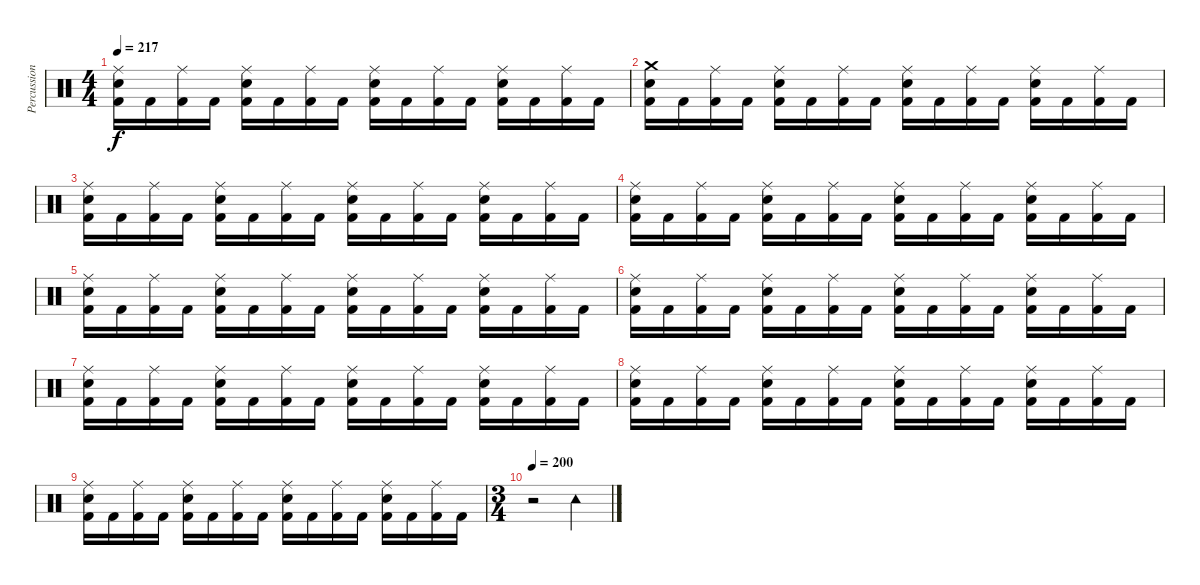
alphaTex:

\track ("Percussions" "Percussion") {instrument percussion}
\staff {score}
\articulation defaults
\ts (4 4)
\tempo 217
\clef neutral
\ks c
("Ride (middle)" "Electric Snare (hit)" "Kick (hit) 2").16{dy f} "Kick (hit) 2".16 ("Ride (middle)" "Kick (hit) 2").16 "Kick (hit) 2".16 ("Ride (middle)" "Electric Snare (hit)" "Kick (hit) 2").16 "Kick (hit) 2".16 ("Ride (middle)" "Kick (hit) 2").16 "Kick (hit) 2".16 ("Ride (middle)" "Electric Snare (hit)" "Kick (hit) 2").16 "Kick (hit) 2".16 ("Ride (middle)" "Kick (hit) 2").16 "Kick (hit) 2".16 ("Ride (middle)" "Electric Snare (hit)" "Kick (hit) 2").16 "Kick (hit) 2".16 ("Ride (middle)" "Kick (hit) 2").16 "Kick (hit) 2".16 |
("Crash medium (hit)" "Electric Snare (hit)" "Kick (hit) 2").16 "Kick (hit) 2".16 ("Ride (middle)" "Kick (hit) 2").16 "Kick (hit) 2".16 ("Ride (middle)" "Electric Snare (hit)" "Kick (hit) 2").16 "Kick (hit) 2".16 ("Ride (middle)" "Kick (hit) 2").16 "Kick (hit) 2".16 ("Ride (middle)" "Electric Snare (hit)" "Kick (hit) 2").16 "Kick (hit) 2".16 ("Ride (middle)" "Kick (hit) 2").16 "Kick (hit) 2".16 ("Ride (middle)" "Electric Snare (hit)" "Kick (hit) 2").16 "Kick (hit) 2".16 ("Ride (middle)" "Kick (hit) 2").16 "Kick (hit) 2".16 |
("Ride (middle)" "Electric Snare (hit)" "Kick (hit) 2").16 "Kick (hit) 2".16 ("Ride (middle)" "Kick (hit) 2").16 "Kick (hit) 2".16 ("Ride (middle)" "Electric Snare (hit)" "Kick (hit) 2").16 "Kick (hit) 2".16 ("Ride (middle)" "Kick (hit) 2").16 "Kick (hit) 2".16 ("Ride (middle)" "Electric Snare (hit)" "Kick (hit) 2").16 "Kick (hit) 2".16 ("Ride (middle)" "Kick (hit) 2").16 "Kick (hit) 2".16 ("Ride (middle)" "Electric Snare (hit)" "Kick (hit) 2").16 "Kick (hit) 2".16 ("Ride (middle)" "Kick (hit) 2").16 "Kick (hit) 2".16 |
("Ride (middle)" "Electric Snare (hit)" "Kick (hit) 2").16 "Kick (hit) 2".16 ("Ride (middle)" "Kick (hit) 2").16 "Kick (hit) 2".16 ("Ride (middle)" "Electric Snare (hit)" "Kick (hit) 2").16 "Kick (hit) 2".16 ("Ride (middle)" "Kick (hit) 2").16 "Kick (hit) 2".16 ("Ride (middle)" "Electric Snare (hit)" "Kick (hit) 2").16 "Kick (hit) 2".16 ("Ride (middle)" "Kick (hit) 2").16 "Kick (hit) 2".16 ("Ride (middle)" "Electric Snare (hit)" "Kick (hit) 2").16 "Kick (hit) 2".16 ("Ride (middle)" "Kick (hit) 2").16 "Kick (hit) 2".16 |
("Ride (middle)" "Electric Snare (hit)" "Kick (hit) 2").16 "Kick (hit) 2".16 ("Ride (middle)" "Kick (hit) 2").16 "Kick (hit) 2".16 ("Ride (middle)" "Electric Snare (hit)" "Kick (hit) 2").16 "Kick (hit) 2".16 ("Ride (middle)" "Kick (hit) 2").16 "Kick (hit) 2".16 ("Ride (middle)" "Electric Snare (hit)" "Kick (hit) 2").16 "Kick (hit) 2".16 ("Ride (middle)" "Kick (hit) 2").16 "Kick (hit) 2".16 ("Ride (middle)" "Electric Snare (hit)" "Kick (hit) 2").16 "Kick (hit) 2".16 ("Ride (middle)" "Kick (hit) 2").16 "Kick (hit) 2".16 |
("Ride (middle)" "Electric Snare (hit)" "Kick (hit) 2").16 "Kick (hit) 2".16 ("Ride (middle)" "Kick (hit) 2").16 "Kick (hit) 2".16 ("Ride (middle)" "Electric Snare (hit)" "Kick (hit) 2").16 "Kick (hit) 2".16 ("Ride (middle)" "Kick (hit) 2").16 "Kick (hit) 2".16 ("Ride (middle)" "Electric Snare (hit)" "Kick (hit) 2").16 "Kick (hit) 2".16 ("Ride (middle)" "Kick (hit) 2").16 "Kick (hit) 2".16 ("Ride (middle)" "Electric Snare (hit)" "Kick (hit) 2").16 "Kick (hit) 2".16 ("Ride (middle)" "Kick (hit) 2").16 "Kick (hit) 2".16 |
("Ride (middle)" "Electric Snare (hit)" "Kick (hit) 2").16 "Kick (hit) 2".16 ("Ride (middle)" "Kick (hit) 2").16 "Kick (hit) 2".16 ("Ride (middle)" "Electric Snare (hit)" "Kick (hit) 2").16 "Kick (hit) 2".16 ("Ride (middle)" "Kick (hit) 2").16 "Kick (hit) 2".16 ("Ride (middle)" "Electric Snare (hit)" "Kick (hit) 2").16 "Kick (hit) 2".16 ("Ride (middle)" "Kick (hit) 2").16 "Kick (hit) 2".16 ("Ride (middle)" "Electric Snare (hit)" "Kick (hit) 2").16 "Kick (hit) 2".16 ("Ride (middle)" "Kick (hit) 2").16 "Kick (hit) 2".16 |
("Ride (middle)" "Electric Snare (hit)" "Kick (hit) 2").16 "Kick (hit) 2".16 ("Ride (middle)" "Kick (hit) 2").16 "Kick (hit) 2".16 ("Ride (middle)" "Electric Snare (hit)" "Kick (hit) 2").16 "Kick (hit) 2".16 ("Ride (middle)" "Kick (hit) 2").16 "Kick (hit) 2".16 ("Ride (middle)" "Electric Snare (hit)" "Kick (hit) 2").16 "Kick (hit) 2".16 ("Ride (middle)" "Kick (hit) 2").16 "Kick (hit) 2".16 ("Ride (middle)" "Electric Snare (hit)" "Kick (hit) 2").16 "Kick (hit) 2".16 ("Ride (middle)" "Kick (hit) 2").16 "Kick (hit) 2".16 |
("Ride (middle)" "Electric Snare (hit)" "Kick (hit) 2").16 "Kick (hit) 2".16 ("Ride (middle)" "Kick (hit) 2").16 "Kick (hit) 2".16 ("Ride (middle)" "Electric Snare (hit)" "Kick (hit) 2").16 "Kick (hit) 2".16 ("Ride (middle)" "Kick (hit) 2").16 "Kick (hit) 2".16 ("Ride (middle)" "Electric Snare (hit)" "Kick (hit) 2").16 "Kick (hit) 2".16 ("Ride (middle)" "Kick (hit) 2").16 "Kick (hit) 2".16 ("Ride (middle)" "Electric Snare (hit)" "Kick (hit) 2").16 "Kick (hit) 2".16 ("Ride (middle)" "Kick (hit) 2").16 "Kick (hit) 2".16 |
\ts (3 4)
\tempo 200
r.2 "Tambourine (hit)".4
